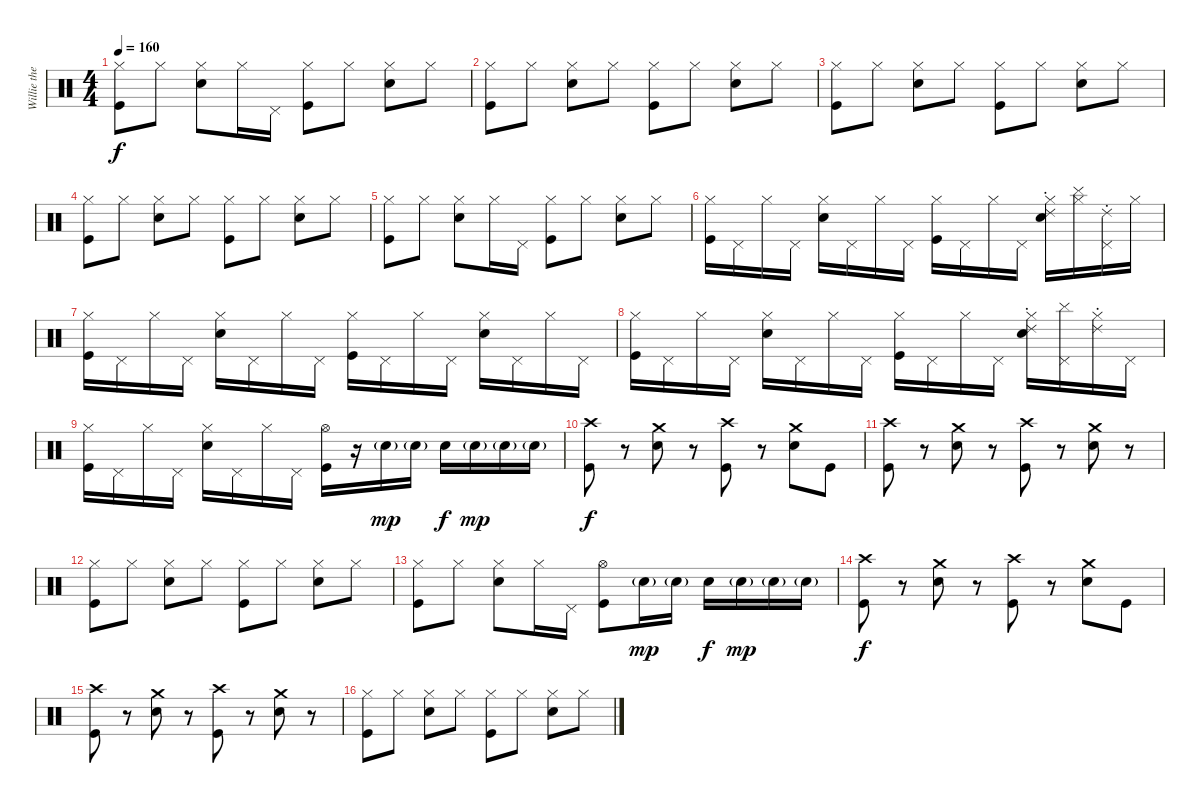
\track ("Willie the new guy" "Willie the") {instrument percussion}
\staff {score}
\articulation defaults
\ts (4 4)
\tempo 160
\clef neutral
\ks c
("Hi-Hat (closed)" "Kick (hit)").8{dy f} "Hi-Hat (closed)".8 ("Hi-Hat (closed)" "Snare (hit) 2").8 "Hi-Hat (closed)".16 "Pedal Hi-Hat (hit)".16 ("Hi-Hat (closed)" "Kick (hit)").8 "Hi-Hat (closed)".8 ("Hi-Hat (closed)" "Snare (hit) 2").8 "Hi-Hat (closed)".8 |
("Hi-Hat (closed)" "Kick (hit)").8 "Hi-Hat (closed)".8 ("Hi-Hat (closed)" "Snare (hit) 2").8 "Hi-Hat (closed)".8 ("Hi-Hat (closed)" "Kick (hit)").8 "Hi-Hat (closed)".8 ("Hi-Hat (closed)" "Snare (hit) 2").8 "Hi-Hat (closed)".8 |
("Hi-Hat (closed)" "Kick (hit)").8 "Hi-Hat (closed)".8 ("Hi-Hat (closed)" "Snare (hit) 2").8 "Hi-Hat (closed)".8 ("Hi-Hat (closed)" "Kick (hit)").8 "Hi-Hat (closed)".8 ("Hi-Hat (closed)" "Snare (hit) 2").8 "Hi-Hat (closed)".8 |
("Hi-Hat (closed)" "Kick (hit)").8 "Hi-Hat (closed)".8 ("Hi-Hat (closed)" "Snare (hit) 2").8 "Hi-Hat (closed)".8 ("Hi-Hat (closed)" "Kick (hit)").8 "Hi-Hat (closed)".8 ("Hi-Hat (closed)" "Snare (hit) 2").8 "Hi-Hat (closed)".8 |
("Hi-Hat (closed)" "Kick (hit)").8 "Hi-Hat (closed)".8 ("Hi-Hat (closed)" "Snare (hit) 2").8 "Hi-Hat (closed)".16 "Pedal Hi-Hat (hit)".16 ("Hi-Hat (closed)" "Kick (hit)").8 "Hi-Hat (closed)".8 ("Hi-Hat (closed)" "Snare (hit) 2").8 "Hi-Hat (closed)".8 |
("Hi-Hat (closed)" "Kick (hit)").16 "Pedal Hi-Hat (hit)".16 "Hi-Hat (closed)".16 "Pedal Hi-Hat (hit)".16 ("Hi-Hat (closed)" "Snare (hit) 2").16 "Pedal Hi-Hat (hit)".16 "Hi-Hat (closed)".16 "Pedal Hi-Hat (hit)".16 ("Hi-Hat (closed)" "Kick (hit)").16 "Pedal Hi-Hat (hit)".16 "Hi-Hat (closed)".16 "Pedal Hi-Hat (hit)".16 ("Hi-Hat (closed)" "Snare (hit) 2" "Ride (choke) 2").16 ("Hi-Hat (closed)" "Cymbal (hit)").16 ("Pedal Hi-Hat (hit)" "Ride (choke) 2").16 "Hi-Hat (closed)".16 |
("Hi-Hat (closed)" "Kick (hit)").16 "Pedal Hi-Hat (hit)".16 "Hi-Hat (closed)".16 "Pedal Hi-Hat (hit)".16 ("Hi-Hat (closed)" "Snare (hit) 2").16 "Pedal Hi-Hat (hit)".16 "Hi-Hat (closed)".16 "Pedal Hi-Hat (hit)".16 ("Hi-Hat (closed)" "Kick (hit)").16 "Pedal Hi-Hat (hit)".16 "Hi-Hat (closed)".16 "Pedal Hi-Hat (hit)".16 ("Hi-Hat (closed)" "Snare (hit) 2").16 "Pedal Hi-Hat (hit)".16 "Hi-Hat (closed)".16 "Pedal Hi-Hat (hit)".16 |
("Hi-Hat (closed)" "Kick (hit)").16 "Pedal Hi-Hat (hit)".16 "Hi-Hat (closed)".16 "Pedal Hi-Hat (hit)".16 ("Hi-Hat (closed)" "Snare (hit) 2").16 "Pedal Hi-Hat (hit)".16 "Hi-Hat (closed)".16 "Pedal Hi-Hat (hit)".16 ("Hi-Hat (closed)" "Kick (hit)").16 "Pedal Hi-Hat (hit)".16 "Hi-Hat (closed)".16 "Pedal Hi-Hat (hit)".16 ("Hi-Hat (closed)" "Snare (hit) 2" "Ride (choke) 2").16 ("Pedal Hi-Hat (hit)" "Cymbal (hit)").16 ("Hi-Hat (closed)" "Ride (choke) 2").16 "Pedal Hi-Hat (hit)".16 |
("Hi-Hat (closed)" "Kick (hit)").16 "Pedal Hi-Hat (hit)".16 "Hi-Hat (closed)".16 "Pedal Hi-Hat (hit)".16 ("Hi-Hat (closed)" "Snare (hit) 2").16 "Pedal Hi-Hat (hit)".16 "Hi-Hat (closed)".16 "Pedal Hi-Hat (hit)".16 ("Hi-Hat (open)" "Kick (hit)").16 r.16 "Snare (hit) 2"{g}.16{dy mp} "Snare (hit) 2"{g}.16 "Snare (hit) 2".16{dy f} "Snare (hit) 2"{g}.16{dy mp} "Snare (hit) 2"{g}.16 "Snare (hit) 2"{g}.16 |
("Crash high (hit)" "Kick (hit)").8{dy f} r.8 ("Crash medium (hit)" "Snare (hit) 2").8 r.8 ("Crash high (hit)" "Kick (hit)").8 r.8 ("Crash medium (hit)" "Snare (hit) 2").8 "Kick (hit)".8 |
("Crash high (hit)" "Kick (hit)").8 r.8 ("Crash medium (hit)" "Snare (hit) 2").8 r.8 ("Crash high (hit)" "Kick (hit)").8 r.8 ("Crash medium (hit)" "Snare (hit) 2").8 r.8 |
("Hi-Hat (closed)" "Kick (hit)").8 "Hi-Hat (closed)".8 ("Hi-Hat (closed)" "Snare (hit) 2").8 "Hi-Hat (closed)".8 ("Hi-Hat (closed)" "Kick (hit)").8 "Hi-Hat (closed)".8 ("Hi-Hat (closed)" "Snare (hit) 2").8 "Hi-Hat (closed)".8 |
("Hi-Hat (closed)" "Kick (hit)").8 "Hi-Hat (closed)".8 ("Hi-Hat (closed)" "Snare (hit) 2").8 "Hi-Hat (closed)".16 "Pedal Hi-Hat (hit)".16 ("Hi-Hat (open)" "Kick (hit)").8 "Snare (hit) 2"{g}.16{dy mp} "Snare (hit) 2"{g}.16 "Snare (hit) 2".16{dy f} "Snare (hit) 2"{g}.16{dy mp} "Snare (hit) 2"{g}.16 "Snare (hit) 2"{g}.16 |
("Crash high (hit)" "Kick (hit)").8{dy f} r.8 ("Crash medium (hit)" "Snare (hit) 2").8 r.8 ("Crash high (hit)" "Kick (hit)").8 r.8 ("Crash medium (hit)" "Snare (hit) 2").8 "Kick (hit)".8 |
("Crash high (hit)" "Kick (hit)").8 r.8 ("Crash medium (hit)" "Snare (hit) 2").8 r.8 ("Crash high (hit)" "Kick (hit)").8 r.8 ("Crash medium (hit)" "Snare (hit) 2").8 r.8 |
("Hi-Hat (closed)" "Kick (hit)").8 "Hi-Hat (closed)".8 ("Hi-Hat (closed)" "Snare (hit) 2").8 "Hi-Hat (closed)".8 ("Hi-Hat (closed)" "Kick (hit)").8 "Hi-Hat (closed)".8 ("Hi-Hat (closed)" "Snare (hit) 2").8 "Hi-Hat (closed)".8
